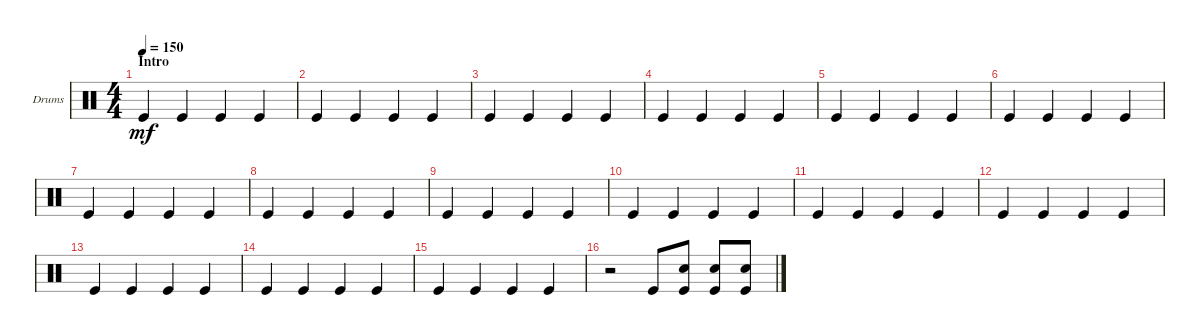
\defaultSystemsLayout 4
\bracketExtendMode groupsimilarinstruments
\firstSystemTrackNameOrientation horizontal
\otherSystemsTrackNameOrientation horizontal
\track ("Drumkit" "Drums") {instrument percussion}
\staff {score}
\articulation defaults
\ts (4 4)
\section ("" "Intro")
\tempo 150
\clef neutral
\ks c "Kick (hit)".4{dy mf} "Kick (hit)".4 "Kick (hit)".4 "Kick (hit)".4
|
"Kick (hit)".4 "Kick (hit)".4 "Kick (hit)".4 "Kick (hit)".4 |
"Kick (hit)".4 "Kick (hit)".4 "Kick (hit)".4 "Kick (hit)".4 |
"Kick (hit)".4 "Kick (hit)".4 "Kick (hit)".4 "Kick (hit)".4 |
"Kick (hit)".4 "Kick (hit)".4 "Kick (hit)".4 "Kick (hit)".4 |
"Kick (hit)".4 "Kick (hit)".4 "Kick (hit)".4 "Kick (hit)".4 |
"Kick (hit)".4 "Kick (hit)".4 "Kick (hit)".4 "Kick (hit)".4 |
"Kick (hit)".4 "Kick (hit)".4 "Kick (hit)".4 "Kick (hit)".4 |
"Kick (hit)".4 "Kick (hit)".4 "Kick (hit)".4 "Kick (hit)".4 |
"Kick (hit)".4 "Kick (hit)".4 "Kick (hit)".4 "Kick (hit)".4 |
"Kick (hit)".4 "Kick (hit)".4 "Kick (hit)".4 "Kick (hit)".4 |
"Kick (hit)".4 "Kick (hit)".4 "Kick (hit)".4 "Kick (hit)".4 |
"Kick (hit)".4 "Kick (hit)".4 "Kick (hit)".4 "Kick (hit)".4 |
"Kick (hit)".4 "Kick (hit)".4 "Kick (hit)".4 "Kick (hit)".4 |
"Kick (hit)".4 "Kick (hit)".4 "Kick (hit)".4 "Kick (hit)".4 |
r.2 "Kick (hit)".8 ("Kick (hit)" "Snare (hit) 2").8 ("Kick (hit)" "Snare (hit) 2").8 ("Kick (hit)" "Snare (hit) 2").8
